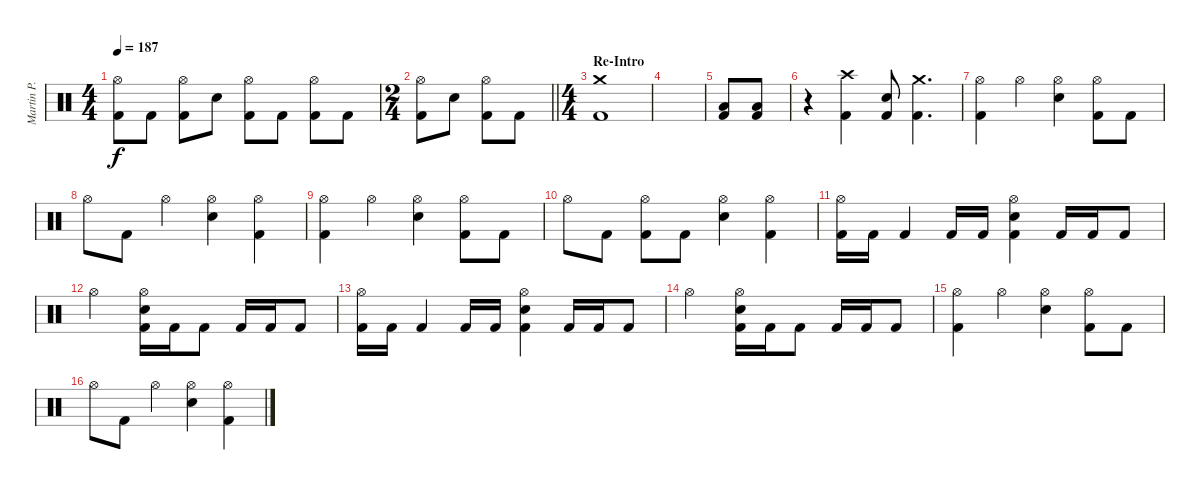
\track ("Martin P." "Martin P.") {instrument percussion}
\staff {score}
\articulation defaults
\ts (4 4)
\tempo 187
\clef neutral
\ks c
("Hi-Hat (open)" "Kick (hit) 2").8{dy f} "Kick (hit) 2".8 ("Hi-Hat (open)" "Kick (hit) 2").8 "Electric Snare (hit)".8 ("Hi-Hat (open)" "Kick (hit) 2").8 "Kick (hit) 2".8 ("Hi-Hat (open)" "Kick (hit) 2").8 "Kick (hit) 2".8 |
\ts (2 4)
\barLineRight lightlight
("Hi-Hat (open)" "Kick (hit) 2").8 "Electric Snare (hit)".8 ("Hi-Hat (open)" "Kick (hit) 2").8 "Kick (hit) 2".8 |
\ts (4 4)
\section ("" "Re-Intro")
("Crash medium (hit)" "Kick (hit) 2").1 |
|
("Kick (hit) 2" "Low Floor Tom (hit)").8 ("Kick (hit) 2" "Low Floor Tom (hit)").8 |
r.4 ("Kick (hit) 2" "Crash high (hit)").4 ("Electric Snare (hit)" "Kick (hit) 2").8 ("Crash medium (hit)" "Kick (hit) 2").4{d} |
("Hi-Hat (open)" "Kick (hit) 2").4 "Hi-Hat (open)".4 ("Hi-Hat (open)" "Electric Snare (hit)").4 ("Hi-Hat (open)" "Kick (hit) 2").8 "Kick (hit) 2".8 |
"Hi-Hat (open)".8 "Kick (hit) 2".8 "Hi-Hat (open)".4 ("Hi-Hat (open)" "Electric Snare (hit)").4 ("Hi-Hat (open)" "Kick (hit) 2").4 |
("Hi-Hat (open)" "Kick (hit) 2").4 "Hi-Hat (open)".4 ("Hi-Hat (open)" "Electric Snare (hit)").4 ("Hi-Hat (open)" "Kick (hit) 2").8 "Kick (hit) 2".8 |
"Hi-Hat (open)".8 "Kick (hit) 2".8 ("Hi-Hat (open)" "Kick (hit) 2").8 "Kick (hit) 2".8 ("Hi-Hat (open)" "Electric Snare (hit)").4 ("Hi-Hat (open)" "Kick (hit) 2").4 |
("Kick (hit) 2" "Hi-Hat (open)").16 "Kick (hit) 2".16 "Kick (hit) 2".4 "Kick (hit) 2".16 "Kick (hit) 2".16 ("Kick (hit) 2" "Electric Snare (hit)" "Hi-Hat (open)").4 "Kick (hit) 2".16 "Kick (hit) 2".16 "Kick (hit) 2".8 |
"Hi-Hat (open)".2 ("Kick (hit) 2" "Electric Snare (hit)" "Hi-Hat (open)").16 "Kick (hit) 2".16 "Kick (hit) 2".8 "Kick (hit) 2".16 "Kick (hit) 2".16 "Kick (hit) 2".8 |
("Kick (hit) 2" "Hi-Hat (open)").16 "Kick (hit) 2".16 "Kick (hit) 2".4 "Kick (hit) 2".16 "Kick (hit) 2".16 ("Kick (hit) 2" "Electric Snare (hit)" "Hi-Hat (open)").4 "Kick (hit) 2".16 "Kick (hit) 2".16 "Kick (hit) 2".8 |
"Hi-Hat (open)".2 ("Kick (hit) 2" "Electric Snare (hit)" "Hi-Hat (open)").16 "Kick (hit) 2".16 "Kick (hit) 2".8 "Kick (hit) 2".16 "Kick (hit) 2".16 "Kick (hit) 2".8 |
("Hi-Hat (open)" "Kick (hit) 2").4 "Hi-Hat (open)".4 ("Hi-Hat (open)" "Electric Snare (hit)").4 ("Hi-Hat (open)" "Kick (hit) 2").8 "Kick (hit) 2".8 |
"Hi-Hat (open)".8 "Kick (hit) 2".8 "Hi-Hat (open)".4 ("Hi-Hat (open)" "Electric Snare (hit)").4 ("Hi-Hat (open)" "Kick (hit) 2").4
